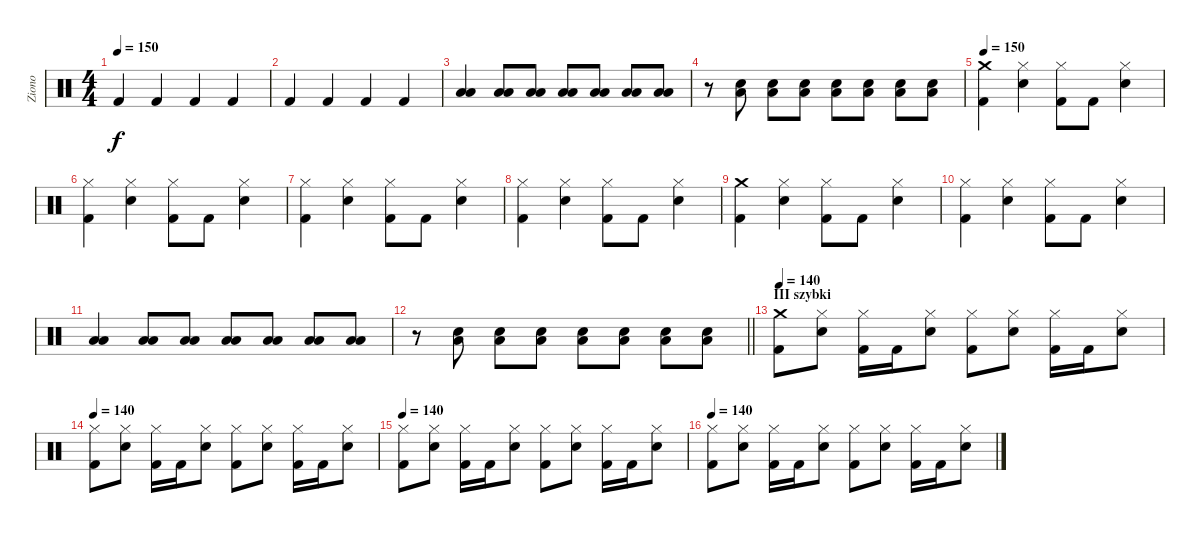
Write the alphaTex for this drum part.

\track ("Ziono" "Ziono") {instrument percussion}
\staff {score}
\articulation defaults
\ts (4 4)
\tempo 150
\clef neutral
\ks c "Kick (hit) 2".4{dy f} "Kick (hit) 2".4 "Kick (hit) 2".4 "Kick (hit) 2".4
|
"Kick (hit) 2".4 "Kick (hit) 2".4 "Kick (hit) 2".4 "Kick (hit) 2".4 |
("Low Floor Tom (hit)" "Low Floor Tom (hit)").4 ("Low Floor Tom (hit)" "Low Floor Tom (hit)").8 ("Low Floor Tom (hit)" "Low Floor Tom (hit)").8 ("Low Floor Tom (hit)" "Low Floor Tom (hit)").8 ("Low Floor Tom (hit)" "Low Floor Tom (hit)").8 ("Low Floor Tom (hit)" "Low Floor Tom (hit)").8 ("Low Floor Tom (hit)" "Low Floor Tom (hit)").8 |
r.8 ("Low Floor Tom (hit)" "Snare (hit) 2").8 ("Low Floor Tom (hit)" "Snare (hit) 2").8 ("Low Floor Tom (hit)" "Snare (hit) 2").8 ("Low Floor Tom (hit)" "Snare (hit) 2").8 ("Low Floor Tom (hit)" "Snare (hit) 2").8 ("Low Floor Tom (hit)" "Snare (hit) 2").8 ("Low Floor Tom (hit)" "Snare (hit) 2").8 |
\tempo 150
("Kick (hit) 2" "Crash medium (hit)").4 ("Hi-Hat (closed)" "Snare (hit) 2").4 ("Hi-Hat (closed)" "Kick (hit) 2").8 "Kick (hit) 2".8 ("Hi-Hat (closed)" "Snare (hit) 2").4 |
("Hi-Hat (closed)" "Kick (hit) 2").4 ("Hi-Hat (closed)" "Snare (hit) 2").4 ("Hi-Hat (closed)" "Kick (hit) 2").8 "Kick (hit) 2".8 ("Hi-Hat (closed)" "Snare (hit) 2").4 |
("Hi-Hat (closed)" "Kick (hit) 2").4 ("Hi-Hat (closed)" "Snare (hit) 2").4 ("Hi-Hat (closed)" "Kick (hit) 2").8 "Kick (hit) 2".8 ("Hi-Hat (closed)" "Snare (hit) 2").4 |
("Hi-Hat (closed)" "Kick (hit) 2").4 ("Hi-Hat (closed)" "Snare (hit) 2").4 ("Hi-Hat (closed)" "Kick (hit) 2").8 "Kick (hit) 2".8 ("Hi-Hat (closed)" "Snare (hit) 2").4 |
("Kick (hit) 2" "Crash medium (hit)").4 ("Hi-Hat (closed)" "Snare (hit) 2").4 ("Hi-Hat (closed)" "Kick (hit) 2").8 "Kick (hit) 2".8 ("Hi-Hat (closed)" "Snare (hit) 2").4 |
("Hi-Hat (closed)" "Kick (hit) 2").4 ("Hi-Hat (closed)" "Snare (hit) 2").4 ("Hi-Hat (closed)" "Kick (hit) 2").8 "Kick (hit) 2".8 ("Hi-Hat (closed)" "Snare (hit) 2").4 |
("Low Floor Tom (hit)" "Low Floor Tom (hit)").4 ("Low Floor Tom (hit)" "Low Floor Tom (hit)").8 ("Low Floor Tom (hit)" "Low Floor Tom (hit)").8 ("Low Floor Tom (hit)" "Low Floor Tom (hit)").8 ("Low Floor Tom (hit)" "Low Floor Tom (hit)").8 ("Low Floor Tom (hit)" "Low Floor Tom (hit)").8 ("Low Floor Tom (hit)" "Low Floor Tom (hit)").8 |
\barLineRight lightlight
r.8 ("Low Floor Tom (hit)" "Snare (hit) 2").8 ("Low Floor Tom (hit)" "Snare (hit) 2").8 ("Low Floor Tom (hit)" "Snare (hit) 2").8 ("Low Floor Tom (hit)" "Snare (hit) 2").8 ("Low Floor Tom (hit)" "Snare (hit) 2").8 ("Low Floor Tom (hit)" "Snare (hit) 2").8 ("Low Floor Tom (hit)" "Snare (hit) 2").8 |
\section ("" "III szybki")
\tempo 140
("Kick (hit) 2" "Crash medium (hit)").8 ("Hi-Hat (closed)" "Snare (hit) 2").8 ("Hi-Hat (closed)" "Kick (hit) 2").16 "Kick (hit) 2".16 ("Hi-Hat (closed)" "Snare (hit) 2").8 ("Hi-Hat (closed)" "Kick (hit) 2").8 ("Hi-Hat (closed)" "Snare (hit) 2").8 ("Hi-Hat (closed)" "Kick (hit) 2").16 "Kick (hit) 2".16 ("Hi-Hat (closed)" "Snare (hit) 2").8 |
\tempo 140
("Hi-Hat (closed)" "Kick (hit) 2").8 ("Hi-Hat (closed)" "Snare (hit) 2").8 ("Hi-Hat (closed)" "Kick (hit) 2").16 "Kick (hit) 2".16 ("Hi-Hat (closed)" "Snare (hit) 2").8 ("Hi-Hat (closed)" "Kick (hit) 2").8 ("Hi-Hat (closed)" "Snare (hit) 2").8 ("Hi-Hat (closed)" "Kick (hit) 2").16 "Kick (hit) 2".16 ("Hi-Hat (closed)" "Snare (hit) 2").8 |
\tempo 140
("Hi-Hat (closed)" "Kick (hit) 2").8 ("Hi-Hat (closed)" "Snare (hit) 2").8 ("Hi-Hat (closed)" "Kick (hit) 2").16 "Kick (hit) 2".16 ("Hi-Hat (closed)" "Snare (hit) 2").8 ("Hi-Hat (closed)" "Kick (hit) 2").8 ("Hi-Hat (closed)" "Snare (hit) 2").8 ("Hi-Hat (closed)" "Kick (hit) 2").16 "Kick (hit) 2".16 ("Hi-Hat (closed)" "Snare (hit) 2").8 |
\tempo 140
("Hi-Hat (closed)" "Kick (hit) 2").8 ("Hi-Hat (closed)" "Snare (hit) 2").8 ("Hi-Hat (closed)" "Kick (hit) 2").16 "Kick (hit) 2".16 ("Hi-Hat (closed)" "Snare (hit) 2").8 ("Hi-Hat (closed)" "Kick (hit) 2").8 ("Hi-Hat (closed)" "Snare (hit) 2").8 ("Hi-Hat (closed)" "Kick (hit) 2").16 "Kick (hit) 2".16 ("Hi-Hat (closed)" "Snare (hit) 2").8
